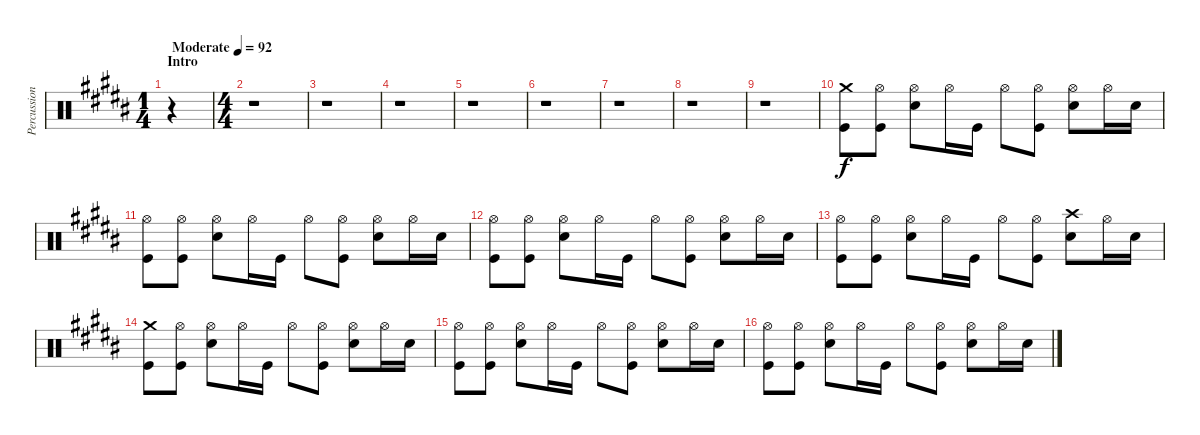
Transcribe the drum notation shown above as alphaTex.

\track ("Percussion" "Percussion") {instrument percussion}
\staff {score}
\articulation defaults
\ts (1 4)
\section ("" "Intro")
\tempo (92 "Moderate")
\clef neutral
\ks b
r.4{dy f} |
\ts (4 4)
r.1 |
r.1 |
r.1 |
r.1 |
r.1 |
r.1 |
r.1 |
r.1 |
("Crash medium (hit)" "Kick (hit)").8 ("Hi-Hat (open)" "Kick (hit)").8 ("Hi-Hat (open)" "Electric Snare (hit)").8 "Hi-Hat (open)".16 "Kick (hit)".16 "Hi-Hat (open)".8 ("Hi-Hat (open)" "Kick (hit)").8 ("Hi-Hat (open)" "Electric Snare (hit)").8 "Hi-Hat (open)".16 "Electric Snare (hit)".16 |
("Hi-Hat (open)" "Kick (hit)").8 ("Hi-Hat (open)" "Kick (hit)").8 ("Hi-Hat (open)" "Electric Snare (hit)").8 "Hi-Hat (open)".16 "Kick (hit)".16 "Hi-Hat (open)".8 ("Hi-Hat (open)" "Kick (hit)").8 ("Hi-Hat (open)" "Electric Snare (hit)").8 "Hi-Hat (open)".16 "Electric Snare (hit)".16 |
("Hi-Hat (open)" "Kick (hit)").8 ("Hi-Hat (open)" "Kick (hit)").8 ("Hi-Hat (open)" "Electric Snare (hit)").8 "Hi-Hat (open)".16 "Kick (hit)".16 "Hi-Hat (open)".8 ("Hi-Hat (open)" "Kick (hit)").8 ("Hi-Hat (open)" "Electric Snare (hit)").8 "Hi-Hat (open)".16 "Electric Snare (hit)".16 |
("Hi-Hat (open)" "Kick (hit)").8 ("Hi-Hat (open)" "Kick (hit)").8 ("Hi-Hat (open)" "Electric Snare (hit)").8 "Hi-Hat (open)".16 "Kick (hit)".16 "Hi-Hat (open)".8 ("Hi-Hat (open)" "Kick (hit)").8 ("Crash high (hit)" "Electric Snare (hit)").8 "Hi-Hat (open)".16 "Electric Snare (hit)".16 |
("Crash medium (hit)" "Kick (hit)").8 ("Hi-Hat (open)" "Kick (hit)").8 ("Hi-Hat (open)" "Electric Snare (hit)").8 "Hi-Hat (open)".16 "Kick (hit)".16 "Hi-Hat (open)".8 ("Hi-Hat (open)" "Kick (hit)").8 ("Hi-Hat (open)" "Electric Snare (hit)").8 "Hi-Hat (open)".16 "Electric Snare (hit)".16 |
("Hi-Hat (open)" "Kick (hit)").8 ("Hi-Hat (open)" "Kick (hit)").8 ("Hi-Hat (open)" "Electric Snare (hit)").8 "Hi-Hat (open)".16 "Kick (hit)".16 "Hi-Hat (open)".8 ("Hi-Hat (open)" "Kick (hit)").8 ("Hi-Hat (open)" "Electric Snare (hit)").8 "Hi-Hat (open)".16 "Electric Snare (hit)".16 |
("Hi-Hat (open)" "Kick (hit)").8 ("Hi-Hat (open)" "Kick (hit)").8 ("Hi-Hat (open)" "Electric Snare (hit)").8 "Hi-Hat (open)".16 "Kick (hit)".16 "Hi-Hat (open)".8 ("Hi-Hat (open)" "Kick (hit)").8 ("Hi-Hat (open)" "Electric Snare (hit)").8 "Hi-Hat (open)".16 "Electric Snare (hit)".16
